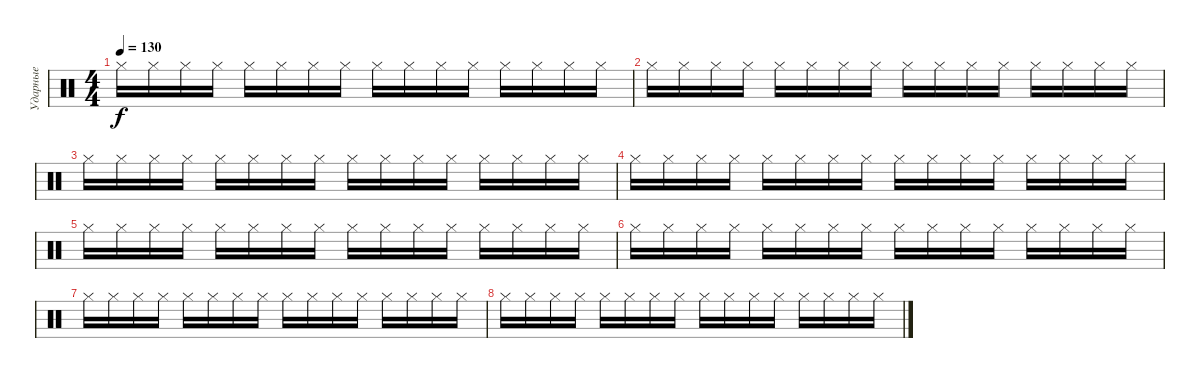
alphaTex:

\track ("Ударные" "Ударные") {instrument percussion}
\staff {score}
\articulation defaults
\ts (4 4)
\tempo 130
\clef neutral
\ks c "Hi-Hat (closed)".16{dy f} "Hi-Hat (closed)".16 "Hi-Hat (closed)".16 "Hi-Hat (closed)".16 "Hi-Hat (closed)".16 "Hi-Hat (closed)".16 "Hi-Hat (closed)".16 "Hi-Hat (closed)".16 "Hi-Hat (closed)".16 "Hi-Hat (closed)".16 "Hi-Hat (closed)".16 "Hi-Hat (closed)".16 "Hi-Hat (closed)".16 "Hi-Hat (closed)".16 "Hi-Hat (closed)".16 "Hi-Hat (closed)".16
|
"Hi-Hat (closed)".16 "Hi-Hat (closed)".16 "Hi-Hat (closed)".16 "Hi-Hat (closed)".16 "Hi-Hat (closed)".16 "Hi-Hat (closed)".16 "Hi-Hat (closed)".16 "Hi-Hat (closed)".16 "Hi-Hat (closed)".16 "Hi-Hat (closed)".16 "Hi-Hat (closed)".16 "Hi-Hat (closed)".16 "Hi-Hat (closed)".16 "Hi-Hat (closed)".16 "Hi-Hat (closed)".16 "Hi-Hat (closed)".16 |
"Hi-Hat (closed)".16 "Hi-Hat (closed)".16 "Hi-Hat (closed)".16 "Hi-Hat (closed)".16 "Hi-Hat (closed)".16 "Hi-Hat (closed)".16 "Hi-Hat (closed)".16 "Hi-Hat (closed)".16 "Hi-Hat (closed)".16 "Hi-Hat (closed)".16 "Hi-Hat (closed)".16 "Hi-Hat (closed)".16 "Hi-Hat (closed)".16 "Hi-Hat (closed)".16 "Hi-Hat (closed)".16 "Hi-Hat (closed)".16 |
"Hi-Hat (closed)".16 "Hi-Hat (closed)".16 "Hi-Hat (closed)".16 "Hi-Hat (closed)".16 "Hi-Hat (closed)".16 "Hi-Hat (closed)".16 "Hi-Hat (closed)".16 "Hi-Hat (closed)".16 "Hi-Hat (closed)".16 "Hi-Hat (closed)".16 "Hi-Hat (closed)".16 "Hi-Hat (closed)".16 "Hi-Hat (closed)".16 "Hi-Hat (closed)".16 "Hi-Hat (closed)".16 "Hi-Hat (closed)".16 |
"Hi-Hat (closed)".16 "Hi-Hat (closed)".16 "Hi-Hat (closed)".16 "Hi-Hat (closed)".16 "Hi-Hat (closed)".16 "Hi-Hat (closed)".16 "Hi-Hat (closed)".16 "Hi-Hat (closed)".16 "Hi-Hat (closed)".16 "Hi-Hat (closed)".16 "Hi-Hat (closed)".16 "Hi-Hat (closed)".16 "Hi-Hat (closed)".16 "Hi-Hat (closed)".16 "Hi-Hat (closed)".16 "Hi-Hat (closed)".16 |
"Hi-Hat (closed)".16 "Hi-Hat (closed)".16 "Hi-Hat (closed)".16 "Hi-Hat (closed)".16 "Hi-Hat (closed)".16 "Hi-Hat (closed)".16 "Hi-Hat (closed)".16 "Hi-Hat (closed)".16 "Hi-Hat (closed)".16 "Hi-Hat (closed)".16 "Hi-Hat (closed)".16 "Hi-Hat (closed)".16 "Hi-Hat (closed)".16 "Hi-Hat (closed)".16 "Hi-Hat (closed)".16 "Hi-Hat (closed)".16 |
"Hi-Hat (closed)".16 "Hi-Hat (closed)".16 "Hi-Hat (closed)".16 "Hi-Hat (closed)".16 "Hi-Hat (closed)".16 "Hi-Hat (closed)".16 "Hi-Hat (closed)".16 "Hi-Hat (closed)".16 "Hi-Hat (closed)".16 "Hi-Hat (closed)".16 "Hi-Hat (closed)".16 "Hi-Hat (closed)".16 "Hi-Hat (closed)".16 "Hi-Hat (closed)".16 "Hi-Hat (closed)".16 "Hi-Hat (closed)".16 |
"Hi-Hat (closed)".16 "Hi-Hat (closed)".16 "Hi-Hat (closed)".16 "Hi-Hat (closed)".16 "Hi-Hat (closed)".16 "Hi-Hat (closed)".16 "Hi-Hat (closed)".16 "Hi-Hat (closed)".16 "Hi-Hat (closed)".16 "Hi-Hat (closed)".16 "Hi-Hat (closed)".16 "Hi-Hat (closed)".16 "Hi-Hat (closed)".16 "Hi-Hat (closed)".16 "Hi-Hat (closed)".16 "Hi-Hat (closed)".16
